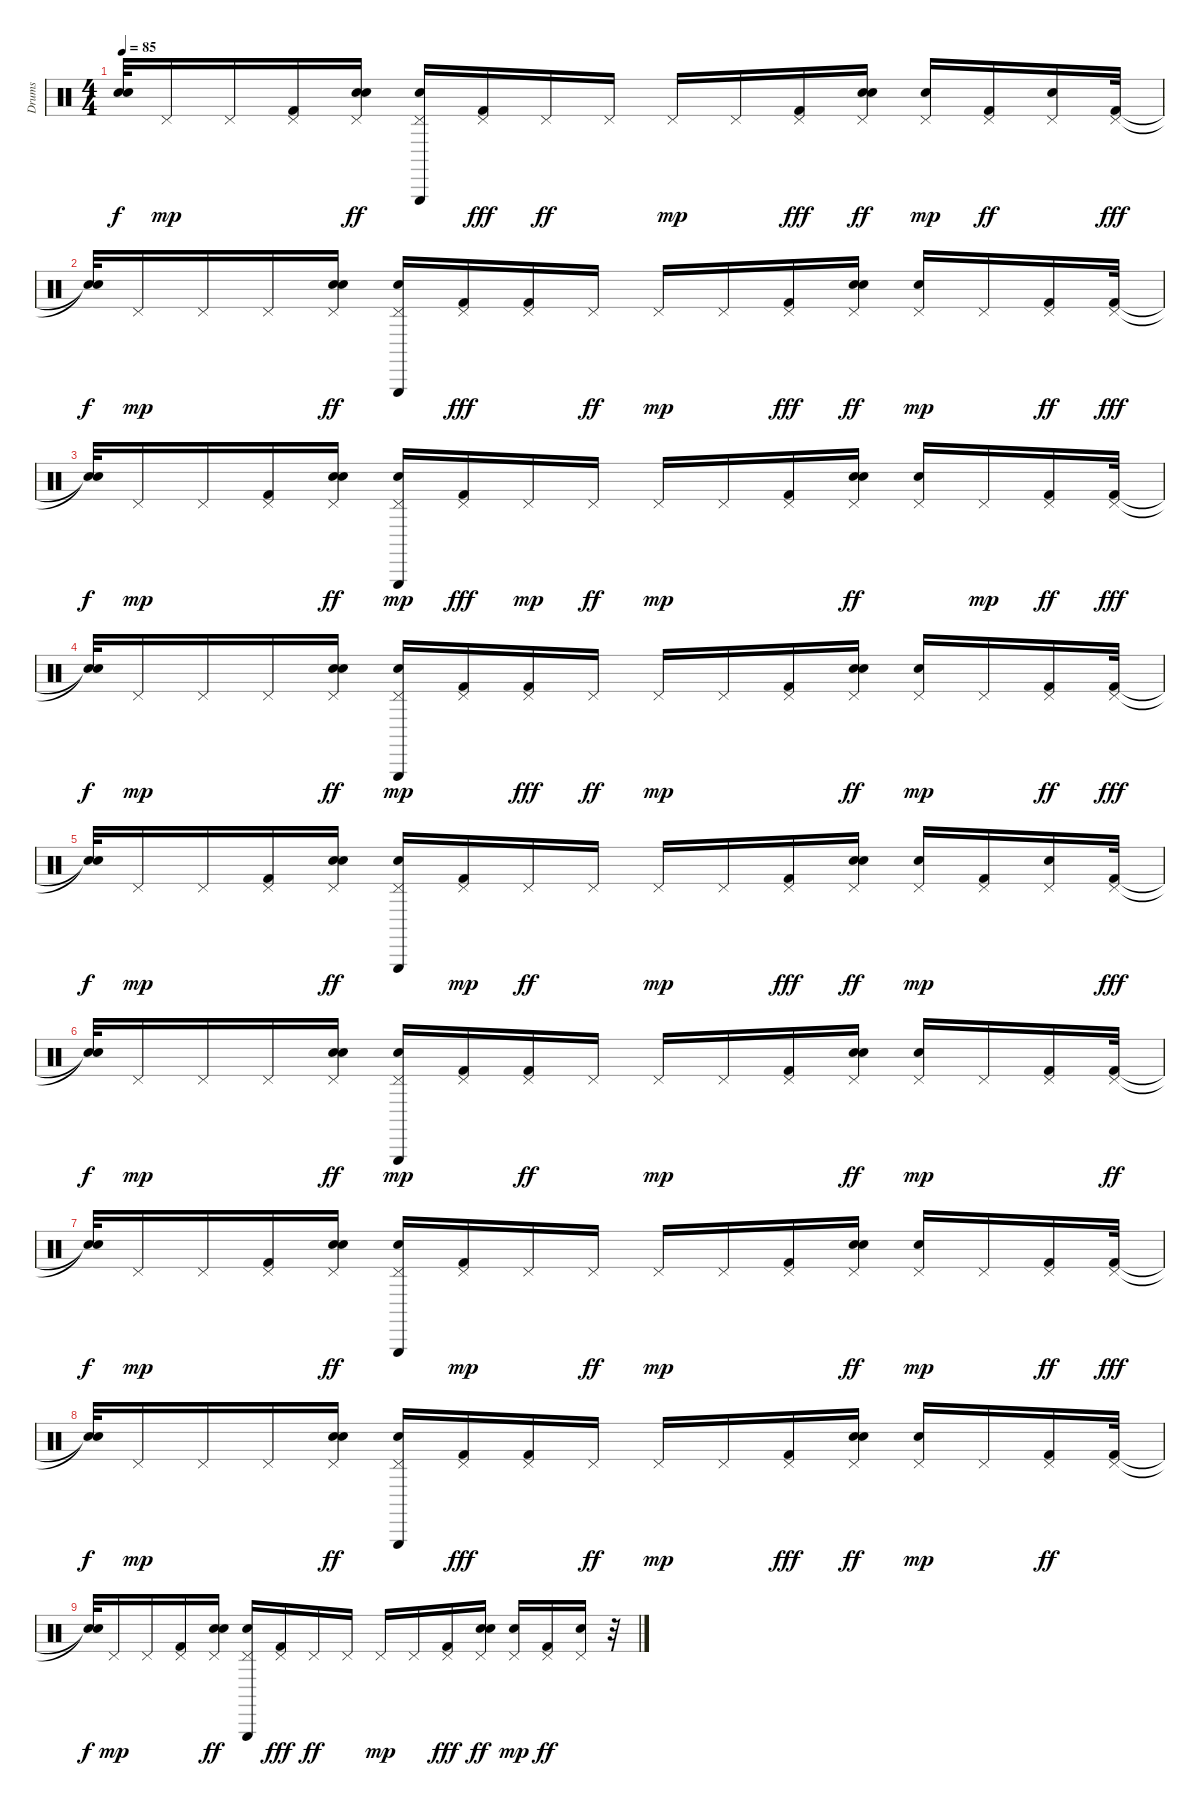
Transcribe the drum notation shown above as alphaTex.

\track ("Drums" "Drums") {instrument percussion}
\staff {score}
\articulation defaults
\ts (4 4)
\tempo 85
\clef neutral
\ks c
("Snare (hit)"{t} "Snare (hit)"{t}).32{dy f} "Pedal Hi-Hat (hit)".16{dy mp} "Pedal Hi-Hat (hit)".16 ("Kick (hit) 2" "Pedal Hi-Hat (hit)").16 ("Pedal Hi-Hat (hit)" "Snare (hit) 2" "Hand Clap (hit)").16{dy ff} ("Triangle (hit)" "Pedal Hi-Hat (hit)" "Snare (hit) 2").16 ("Pedal Hi-Hat (hit)" "Kick (hit) 2").16{dy fff} "Pedal Hi-Hat (hit)".16{dy ff} "Pedal Hi-Hat (hit)".16 "Pedal Hi-Hat (hit)".16{dy mp} "Pedal Hi-Hat (hit)".16 ("Pedal Hi-Hat (hit)" "Kick (hit) 2").16{dy fff} ("Hand Clap (hit)" "Snare (hit) 2" "Pedal Hi-Hat (hit)").16{dy ff} ("Snare (hit) 2" "Pedal Hi-Hat (hit)").16{dy mp} ("Pedal Hi-Hat (hit)" "Kick (hit) 2").16{dy ff} ("Pedal Hi-Hat (hit)" "Snare (hit) 2").16 ("Pedal Hi-Hat (hit)" "Kick (hit) 2").32{dy fff} |
("Snare (hit)"{t} "Snare (hit)"{t}).32{dy f} "Pedal Hi-Hat (hit)".16{dy mp} "Pedal Hi-Hat (hit)".16 "Pedal Hi-Hat (hit)".16 ("Pedal Hi-Hat (hit)" "Hand Clap (hit)" "Snare (hit) 2").16{dy ff} ("Pedal Hi-Hat (hit)" "Triangle (hit)" "Snare (hit) 2").16 ("Pedal Hi-Hat (hit)" "Kick (hit) 2").16{dy fff} ("Pedal Hi-Hat (hit)" "Kick (hit) 2").16 "Pedal Hi-Hat (hit)".16{dy ff} "Pedal Hi-Hat (hit)".16{dy mp} "Pedal Hi-Hat (hit)".16 ("Pedal Hi-Hat (hit)" "Kick (hit) 2").16{dy fff} ("Snare (hit) 2" "Pedal Hi-Hat (hit)" "Hand Clap (hit)").16{dy ff} ("Snare (hit) 2" "Pedal Hi-Hat (hit)").16{dy mp} "Pedal Hi-Hat (hit)".16 ("Pedal Hi-Hat (hit)" "Kick (hit) 2").16{dy ff} ("Pedal Hi-Hat (hit)" "Kick (hit) 2").32{dy fff} |
("Snare (hit)"{t} "Snare (hit)"{t}).32{dy f} "Pedal Hi-Hat (hit)".16{dy mp} "Pedal Hi-Hat (hit)".16 ("Kick (hit) 2" "Pedal Hi-Hat (hit)").16 ("Hand Clap (hit)" "Pedal Hi-Hat (hit)" "Snare (hit) 2").16{dy ff} ("Triangle (hit)" "Snare (hit) 2" "Pedal Hi-Hat (hit)").16{dy mp} ("Pedal Hi-Hat (hit)" "Kick (hit) 2").16{dy fff} "Pedal Hi-Hat (hit)".16{dy mp} "Pedal Hi-Hat (hit)".16{dy ff} "Pedal Hi-Hat (hit)".16{dy mp} "Pedal Hi-Hat (hit)".16 ("Kick (hit) 2" "Pedal Hi-Hat (hit)").16 ("Hand Clap (hit)" "Pedal Hi-Hat (hit)" "Snare (hit) 2").16{dy ff} ("Pedal Hi-Hat (hit)" "Snare (hit) 2").16 "Pedal Hi-Hat (hit)".16{dy mp} ("Pedal Hi-Hat (hit)" "Kick (hit) 2").16{dy ff} ("Pedal Hi-Hat (hit)" "Kick (hit) 2").32{dy fff} |
("Snare (hit)"{t} "Snare (hit)"{t}).32{dy f} "Pedal Hi-Hat (hit)".16{dy mp} "Pedal Hi-Hat (hit)".16 "Pedal Hi-Hat (hit)".16 ("Snare (hit) 2" "Pedal Hi-Hat (hit)" "Hand Clap (hit)").16{dy ff} ("Snare (hit) 2" "Pedal Hi-Hat (hit)" "Triangle (hit)").16{dy mp} ("Kick (hit) 2" "Pedal Hi-Hat (hit)").16 ("Pedal Hi-Hat (hit)" "Kick (hit) 2").16{dy fff} "Pedal Hi-Hat (hit)".16{dy ff} "Pedal Hi-Hat (hit)".16{dy mp} "Pedal Hi-Hat (hit)".16 ("Kick (hit) 2" "Pedal Hi-Hat (hit)").16 ("Pedal Hi-Hat (hit)" "Snare (hit) 2" "Hand Clap (hit)").16{dy ff} ("Snare (hit) 2" "Pedal Hi-Hat (hit)").16{dy mp} "Pedal Hi-Hat (hit)".16 ("Pedal Hi-Hat (hit)" "Kick (hit) 2").16{dy ff} ("Pedal Hi-Hat (hit)" "Kick (hit) 2").32{dy fff} |
("Snare (hit)"{t} "Snare (hit)"{t}).32{dy f} "Pedal Hi-Hat (hit)".16{dy mp} "Pedal Hi-Hat (hit)".16 ("Kick (hit) 2" "Pedal Hi-Hat (hit)").16 ("Snare (hit) 2" "Pedal Hi-Hat (hit)" "Hand Clap (hit)").16{dy ff} ("Triangle (hit)" "Pedal Hi-Hat (hit)" "Snare (hit) 2").16 ("Kick (hit) 2" "Pedal Hi-Hat (hit)").16{dy mp} "Pedal Hi-Hat (hit)".16{dy ff} "Pedal Hi-Hat (hit)".16 "Pedal Hi-Hat (hit)".16{dy mp} "Pedal Hi-Hat (hit)".16 ("Pedal Hi-Hat (hit)" "Kick (hit) 2").16{dy fff} ("Hand Clap (hit)" "Snare (hit) 2" "Pedal Hi-Hat (hit)").16{dy ff} ("Snare (hit) 2" "Pedal Hi-Hat (hit)").16{dy mp} ("Kick (hit) 2" "Pedal Hi-Hat (hit)").16 ("Snare (hit) 2" "Pedal Hi-Hat (hit)").16 ("Pedal Hi-Hat (hit)" "Kick (hit) 2").32{dy fff} |
("Snare (hit)"{t} "Snare (hit)"{t}).32{dy f} "Pedal Hi-Hat (hit)".16{dy mp} "Pedal Hi-Hat (hit)".16 "Pedal Hi-Hat (hit)".16 ("Snare (hit) 2" "Hand Clap (hit)" "Pedal Hi-Hat (hit)").16{dy ff} ("Snare (hit) 2" "Triangle (hit)" "Pedal Hi-Hat (hit)").16{dy mp} ("Kick (hit) 2" "Pedal Hi-Hat (hit)").16 ("Kick (hit) 2" "Pedal Hi-Hat (hit)").16{dy ff} "Pedal Hi-Hat (hit)".16 "Pedal Hi-Hat (hit)".16{dy mp} "Pedal Hi-Hat (hit)".16 ("Kick (hit) 2" "Pedal Hi-Hat (hit)").16 ("Hand Clap (hit)" "Snare (hit) 2" "Pedal Hi-Hat (hit)").16{dy ff} ("Snare (hit) 2" "Pedal Hi-Hat (hit)").16{dy mp} "Pedal Hi-Hat (hit)".16 ("Kick (hit) 2" "Pedal Hi-Hat (hit)").16 ("Kick (hit) 2" "Pedal Hi-Hat (hit)").32{dy ff} |
("Snare (hit)"{t} "Snare (hit)"{t}).32{dy f} "Pedal Hi-Hat (hit)".16{dy mp} "Pedal Hi-Hat (hit)".16 ("Kick (hit) 2" "Pedal Hi-Hat (hit)").16 ("Pedal Hi-Hat (hit)" "Hand Clap (hit)" "Snare (hit) 2").16{dy ff} ("Pedal Hi-Hat (hit)" "Triangle (hit)" "Snare (hit) 2").16 ("Kick (hit) 2" "Pedal Hi-Hat (hit)").16{dy mp} "Pedal Hi-Hat (hit)".16 "Pedal Hi-Hat (hit)".16{dy ff} "Pedal Hi-Hat (hit)".16{dy mp} "Pedal Hi-Hat (hit)".16 ("Kick (hit) 2" "Pedal Hi-Hat (hit)").16 ("Hand Clap (hit)" "Snare (hit) 2" "Pedal Hi-Hat (hit)").16{dy ff} ("Snare (hit) 2" "Pedal Hi-Hat (hit)").16{dy mp} "Pedal Hi-Hat (hit)".16 ("Pedal Hi-Hat (hit)" "Kick (hit) 2").16{dy ff} ("Pedal Hi-Hat (hit)" "Kick (hit) 2").32{dy fff} |
("Snare (hit)"{t} "Snare (hit)"{t}).32{dy f} "Pedal Hi-Hat (hit)".16{dy mp} "Pedal Hi-Hat (hit)".16 "Pedal Hi-Hat (hit)".16 ("Pedal Hi-Hat (hit)" "Hand Clap (hit)" "Snare (hit) 2").16{dy ff} ("Triangle (hit)" "Pedal Hi-Hat (hit)" "Snare (hit) 2").16 ("Pedal Hi-Hat (hit)" "Kick (hit) 2").16{dy fff} ("Pedal Hi-Hat (hit)" "Kick (hit) 2").16 "Pedal Hi-Hat (hit)".16{dy ff} "Pedal Hi-Hat (hit)".16{dy mp} "Pedal Hi-Hat (hit)".16 ("Pedal Hi-Hat (hit)" "Kick (hit) 2").16{dy fff} ("Snare (hit) 2" "Pedal Hi-Hat (hit)" "Hand Clap (hit)").16{dy ff} ("Snare (hit) 2" "Pedal Hi-Hat (hit)").16{dy mp} "Pedal Hi-Hat (hit)".16 ("Pedal Hi-Hat (hit)" "Kick (hit) 2").16{dy ff} ("Kick (hit) 2" "Pedal Hi-Hat (hit)").32 |
("Snare (hit)"{t} "Snare (hit)"{t}).32{dy f} "Pedal Hi-Hat (hit)".16{dy mp} "Pedal Hi-Hat (hit)".16 ("Kick (hit) 2" "Pedal Hi-Hat (hit)").16 ("Pedal Hi-Hat (hit)" "Snare (hit) 2" "Hand Clap (hit)").16{dy ff} ("Triangle (hit)" "Pedal Hi-Hat (hit)" "Snare (hit) 2").16 ("Pedal Hi-Hat (hit)" "Kick (hit) 2").16{dy fff} "Pedal Hi-Hat (hit)".16{dy ff} "Pedal Hi-Hat (hit)".16 "Pedal Hi-Hat (hit)".16{dy mp} "Pedal Hi-Hat (hit)".16 ("Pedal Hi-Hat (hit)" "Kick (hit) 2").16{dy fff} ("Hand Clap (hit)" "Snare (hit) 2" "Pedal Hi-Hat (hit)").16{dy ff} ("Snare (hit) 2" "Pedal Hi-Hat (hit)").16{dy mp} ("Pedal Hi-Hat (hit)" "Kick (hit) 2").16{dy ff} ("Pedal Hi-Hat (hit)" "Snare (hit) 2").16 r.32
